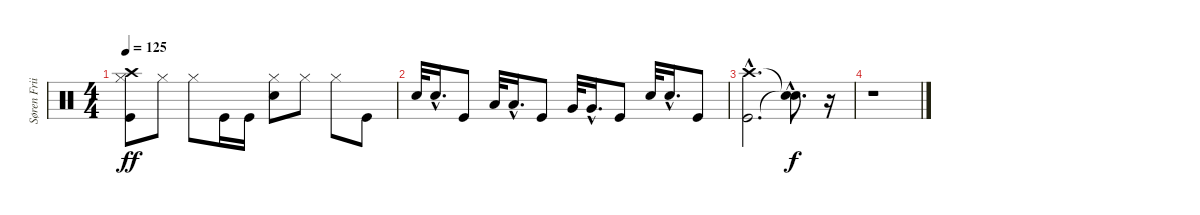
\track ("Søren Friis - Drums" "Søren Frii") {instrument percussion}
\staff {score}
\articulation defaults
\ts (4 4)
\tempo 125
\clef neutral
\ks c
("Kick (hit)" "Hi-Hat (closed)" "Crash high (hit)").8{dy ff} "Hi-Hat (closed)".8 "Hi-Hat (closed)".8 "Kick (hit)".16 "Kick (hit)".16 ("Snare (hit) 2" "Hi-Hat (closed)").8 "Hi-Hat (closed)".8 "Hi-Hat (closed)".8 "Kick (hit)".8 |
"Snare (hit) 2".32 "Snare (hit) 2"{hac}.16{d} "Kick (hit)".8 "Low Tom (hit)".32 "Low Tom (hit)"{hac}.16{d} "Kick (hit)".8 "Very Low Tom (hit)".32 "Very Low Tom (hit)"{hac}.16{d} "Kick (hit)".8 "Snare (hit) 2".32 "Snare (hit) 2"{hac}.16{d} "Kick (hit)".8 |
("Kick (hit)"{hac} "Crash high (hit)"{hac}).2{d} ("Snare (hit)"{hac t} "Snare (hit)"{hac t}).8{d dy f} r.16 |
r.1
